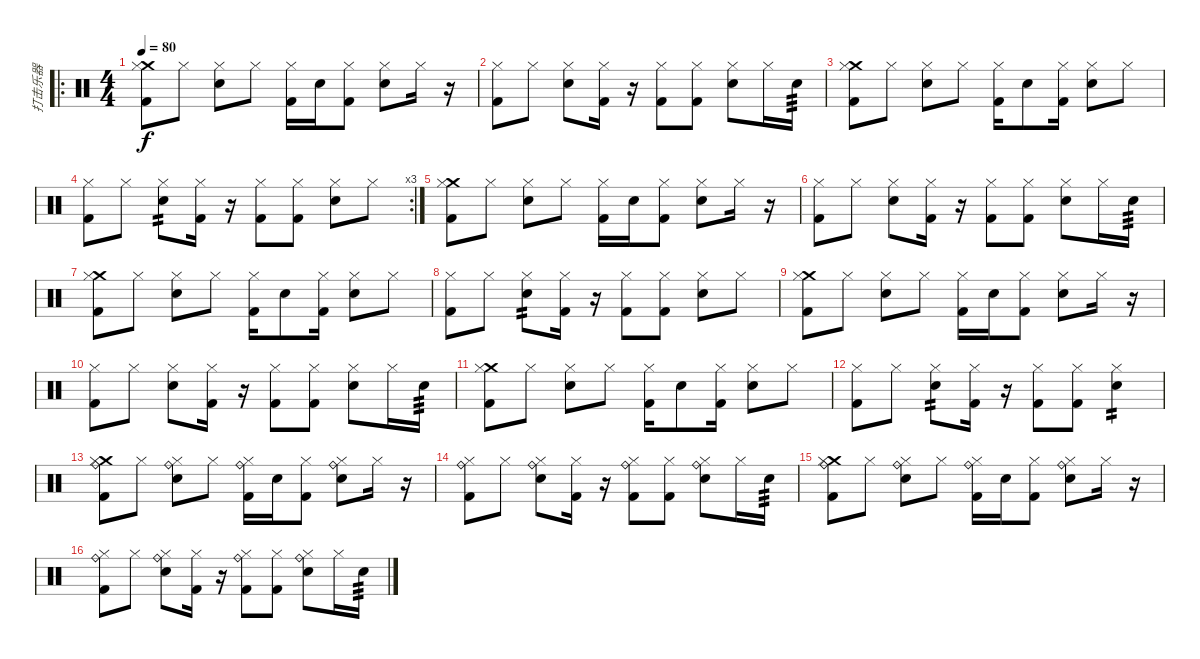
\track ("打击乐器" "打击乐器") {instrument percussion}
\staff {score}
\articulation defaults
\ro
\ts (4 4)
\tempo 80
\clef neutral
\ks c
("Crash medium (hit)" "Hi-Hat (closed)" "Kick (hit) 2").8{dy f} "Hi-Hat (closed)".8 ("Hi-Hat (closed)" "Electric Snare (hit)").8 "Hi-Hat (closed)".8 ("Hi-Hat (closed)" "Kick (hit) 2").16 "Electric Snare (hit)".16 ("Hi-Hat (closed)" "Kick (hit) 2").8 ("Hi-Hat (closed)" "Electric Snare (hit)").8 "Hi-Hat (closed)".16 r.16 |
("Hi-Hat (closed)" "Kick (hit) 2").8 "Hi-Hat (closed)".8 ("Hi-Hat (closed)" "Electric Snare (hit)").8 ("Hi-Hat (closed)" "Kick (hit) 2").16 r.16 ("Hi-Hat (closed)" "Kick (hit) 2").8 ("Hi-Hat (closed)" "Kick (hit) 2").8 ("Hi-Hat (closed)" "Electric Snare (hit)").8 "Hi-Hat (closed)".16 "Electric Snare (hit)".16{tp 3} |
("Crash medium (hit)" "Hi-Hat (closed)" "Kick (hit) 2").8 "Hi-Hat (closed)".8 ("Hi-Hat (closed)" "Electric Snare (hit)").8 "Hi-Hat (closed)".8 ("Hi-Hat (closed)" "Kick (hit) 2").16 "Electric Snare (hit)".8 ("Hi-Hat (closed)" "Kick (hit) 2").16 ("Hi-Hat (closed)" "Electric Snare (hit)").8 "Hi-Hat (closed)".8 |
\rc 3
("Hi-Hat (closed)" "Kick (hit) 2").8 "Hi-Hat (closed)".8 ("Hi-Hat (closed)" "Electric Snare (hit)").8{tp 2} ("Hi-Hat (closed)" "Kick (hit) 2").16 r.16 ("Hi-Hat (closed)" "Kick (hit) 2").8 ("Hi-Hat (closed)" "Kick (hit) 2").8 ("Hi-Hat (closed)" "Electric Snare (hit)").8 "Hi-Hat (closed)".8 |
("Crash medium (hit)" "Hi-Hat (closed)" "Kick (hit) 2").8 "Hi-Hat (closed)".8 ("Hi-Hat (closed)" "Electric Snare (hit)").8 "Hi-Hat (closed)".8 ("Hi-Hat (closed)" "Kick (hit) 2").16 "Electric Snare (hit)".16 ("Hi-Hat (closed)" "Kick (hit) 2").8 ("Hi-Hat (closed)" "Electric Snare (hit)").8 "Hi-Hat (closed)".16 r.16 |
("Hi-Hat (closed)" "Kick (hit) 2").8 "Hi-Hat (closed)".8 ("Hi-Hat (closed)" "Electric Snare (hit)").8 ("Hi-Hat (closed)" "Kick (hit) 2").16 r.16 ("Hi-Hat (closed)" "Kick (hit) 2").8 ("Hi-Hat (closed)" "Kick (hit) 2").8 ("Hi-Hat (closed)" "Electric Snare (hit)").8 "Hi-Hat (closed)".16 "Electric Snare (hit)".16{tp 3} |
("Crash medium (hit)" "Hi-Hat (closed)" "Kick (hit) 2").8 "Hi-Hat (closed)".8 ("Hi-Hat (closed)" "Electric Snare (hit)").8 "Hi-Hat (closed)".8 ("Hi-Hat (closed)" "Kick (hit) 2").16 "Electric Snare (hit)".8 ("Hi-Hat (closed)" "Kick (hit) 2").16 ("Hi-Hat (closed)" "Electric Snare (hit)").8 "Hi-Hat (closed)".8 |
("Hi-Hat (closed)" "Kick (hit) 2").8 "Hi-Hat (closed)".8 ("Hi-Hat (closed)" "Electric Snare (hit)").8{tp 2} ("Hi-Hat (closed)" "Kick (hit) 2").16 r.16 ("Hi-Hat (closed)" "Kick (hit) 2").8 ("Hi-Hat (closed)" "Kick (hit) 2").8 ("Hi-Hat (closed)" "Electric Snare (hit)").8 "Hi-Hat (closed)".8 |
("Crash medium (hit)" "Hi-Hat (closed)" "Kick (hit) 2").8 "Hi-Hat (closed)".8 ("Hi-Hat (closed)" "Electric Snare (hit)").8 "Hi-Hat (closed)".8 ("Hi-Hat (closed)" "Kick (hit) 2").16 "Electric Snare (hit)".16 ("Hi-Hat (closed)" "Kick (hit) 2").8 ("Hi-Hat (closed)" "Electric Snare (hit)").8 "Hi-Hat (closed)".16 r.16 |
("Hi-Hat (closed)" "Kick (hit) 2").8 "Hi-Hat (closed)".8 ("Hi-Hat (closed)" "Electric Snare (hit)").8 ("Hi-Hat (closed)" "Kick (hit) 2").16 r.16 ("Hi-Hat (closed)" "Kick (hit) 2").8 ("Hi-Hat (closed)" "Kick (hit) 2").8 ("Hi-Hat (closed)" "Electric Snare (hit)").8 "Hi-Hat (closed)".16 "Electric Snare (hit)".16{tp 3} |
("Crash medium (hit)" "Hi-Hat (closed)" "Kick (hit) 2").8 "Hi-Hat (closed)".8 ("Hi-Hat (closed)" "Electric Snare (hit)").8 "Hi-Hat (closed)".8 ("Hi-Hat (closed)" "Kick (hit) 2").16 "Electric Snare (hit)".8 ("Hi-Hat (closed)" "Kick (hit) 2").16 ("Hi-Hat (closed)" "Electric Snare (hit)").8 "Hi-Hat (closed)".8 |
("Hi-Hat (closed)" "Kick (hit) 2").8 "Hi-Hat (closed)".8 ("Hi-Hat (closed)" "Electric Snare (hit)").8{tp 2} ("Hi-Hat (closed)" "Kick (hit) 2").16 r.16 ("Hi-Hat (closed)" "Kick (hit) 2").8 ("Hi-Hat (closed)" "Kick (hit) 2").8 ("Hi-Hat (closed)" "Electric Snare (hit)").4{tp 2} |
("Crash medium (hit)" "Ride (bell)" "Hi-Hat (closed)" "Kick (hit) 2").8 "Hi-Hat (closed)".8 ("Ride (bell)" "Hi-Hat (closed)" "Electric Snare (hit)").8 "Hi-Hat (closed)".8 ("Ride (bell)" "Hi-Hat (closed)" "Kick (hit) 2").16 "Electric Snare (hit)".16 ("Hi-Hat (closed)" "Kick (hit) 2").8 ("Ride (bell)" "Hi-Hat (closed)" "Electric Snare (hit)").8 "Hi-Hat (closed)".16 r.16 |
("Ride (bell)" "Hi-Hat (closed)" "Kick (hit) 2").8 "Hi-Hat (closed)".8 ("Ride (bell)" "Hi-Hat (closed)" "Electric Snare (hit)").8 ("Hi-Hat (closed)" "Kick (hit) 2").16 r.16 ("Ride (bell)" "Hi-Hat (closed)" "Kick (hit) 2").8 ("Hi-Hat (closed)" "Kick (hit) 2").8 ("Ride (bell)" "Hi-Hat (closed)" "Electric Snare (hit)").8 "Hi-Hat (closed)".16 "Electric Snare (hit)".16{tp 3} |
("Crash medium (hit)" "Ride (bell)" "Hi-Hat (closed)" "Kick (hit) 2").8 "Hi-Hat (closed)".8 ("Ride (bell)" "Hi-Hat (closed)" "Electric Snare (hit)").8 "Hi-Hat (closed)".8 ("Ride (bell)" "Hi-Hat (closed)" "Kick (hit) 2").16 "Electric Snare (hit)".16 ("Hi-Hat (closed)" "Kick (hit) 2").8 ("Ride (bell)" "Hi-Hat (closed)" "Electric Snare (hit)").8 "Hi-Hat (closed)".16 r.16 |
("Ride (bell)" "Hi-Hat (closed)" "Kick (hit) 2").8 "Hi-Hat (closed)".8 ("Ride (bell)" "Hi-Hat (closed)" "Electric Snare (hit)").8 ("Hi-Hat (closed)" "Kick (hit) 2").16 r.16 ("Ride (bell)" "Hi-Hat (closed)" "Kick (hit) 2").8 ("Hi-Hat (closed)" "Kick (hit) 2").8 ("Ride (bell)" "Hi-Hat (closed)" "Electric Snare (hit)").8 "Hi-Hat (closed)".16 "Electric Snare (hit)".16{tp 3}
